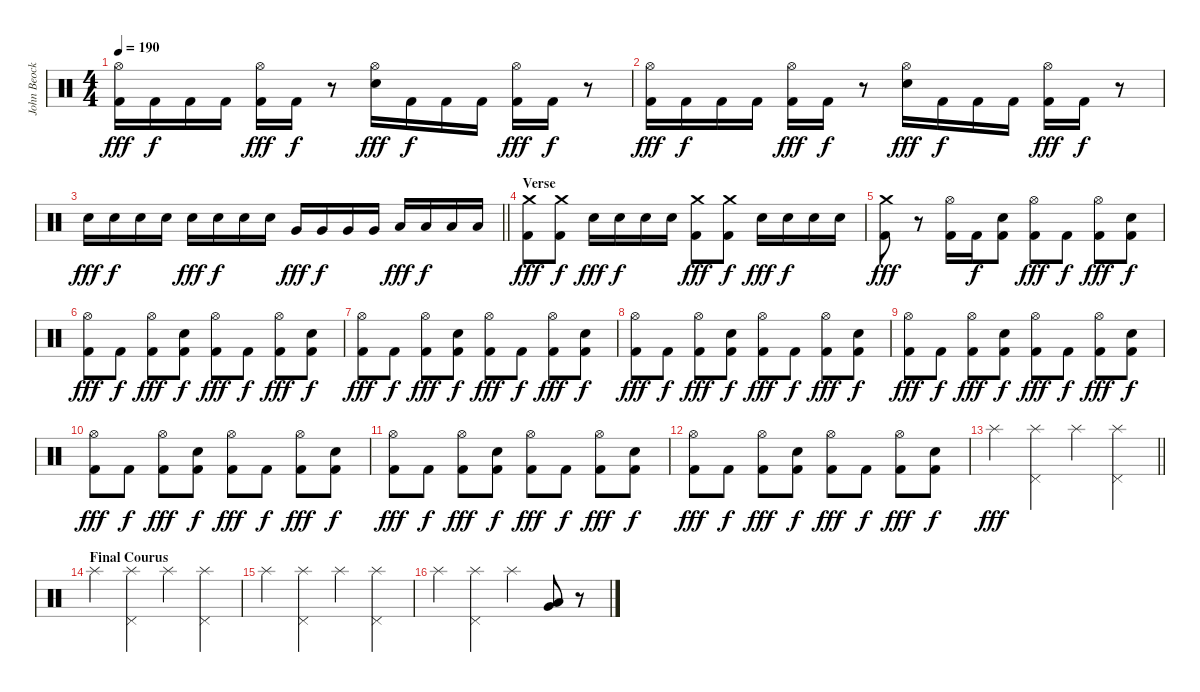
\track ("John Beocklin (Drums)" "John Beock") {instrument percussion}
\staff {score}
\articulation defaults
\ts (4 4)
\tempo 190
\clef neutral
\ks c
("Hi-Hat (open)" "Kick (hit) 2").16{dy fff} "Kick (hit) 2".16{dy f} "Kick (hit) 2".16 "Kick (hit) 2".16 ("Hi-Hat (open)" "Kick (hit) 2").16{dy fff} "Kick (hit) 2".16{dy f} r.8 ("Hi-Hat (open)" "Snare (hit) 2").16{dy fff} "Kick (hit) 2".16{dy f} "Kick (hit) 2".16 "Kick (hit) 2".16 ("Hi-Hat (open)" "Kick (hit) 2").16{dy fff} "Kick (hit) 2".16{dy f} r.8 |
("Hi-Hat (open)" "Kick (hit) 2").16{dy fff} "Kick (hit) 2".16{dy f} "Kick (hit) 2".16 "Kick (hit) 2".16 ("Hi-Hat (open)" "Kick (hit) 2").16{dy fff} "Kick (hit) 2".16{dy f} r.8 ("Hi-Hat (open)" "Snare (hit) 2").16{dy fff} "Kick (hit) 2".16{dy f} "Kick (hit) 2".16 "Kick (hit) 2".16 ("Hi-Hat (open)" "Kick (hit) 2").16{dy fff} "Kick (hit) 2".16{dy f} r.8 |
\barLineRight lightlight "Snare (hit) 2".16{dy fff} "Snare (hit) 2".16{dy f} "Snare (hit) 2".16 "Snare (hit) 2".16 "Snare (hit) 2".16{dy fff} "Snare (hit) 2".16{dy f} "Snare (hit) 2".16 "Snare (hit) 2".16 "Very Low Tom (hit)".16{dy fff} "Very Low Tom (hit)".16{dy f} "Very Low Tom (hit)".16 "Very Low Tom (hit)".16 "Low Floor Tom (hit)".16{dy fff} "Low Floor Tom (hit)".16{dy f} "Low Floor Tom (hit)".16 "Low Floor Tom (hit)".16
|
\section ("" "Verse")
("Crash medium (hit)" "Kick (hit) 2").8{dy fff} ("Crash medium (hit)" "Kick (hit) 2").8{dy f} "Snare (hit) 2".16{dy fff} "Snare (hit) 2".16{dy f} "Snare (hit) 2".16 "Snare (hit) 2".16 ("Crash medium (hit)" "Kick (hit) 2").8{dy fff} ("Crash medium (hit)" "Kick (hit) 2").8{dy f} "Snare (hit) 2".16{dy fff} "Snare (hit) 2".16{dy f} "Snare (hit) 2".16 "Snare (hit) 2".16 |
("Crash medium (hit)" "Kick (hit) 2").8{dy fff} r.8 ("Hi-Hat (open)" "Kick (hit) 2").16 "Kick (hit) 2".16{dy f} ("Snare (hit) 2" "Kick (hit) 2").8 ("Hi-Hat (open)" "Kick (hit) 2").8{dy fff} "Kick (hit) 2".8{dy f} ("Hi-Hat (open)" "Kick (hit) 2").8{dy fff} ("Snare (hit) 2" "Kick (hit) 2").8{dy f} |
("Hi-Hat (open)" "Kick (hit) 2").8{dy fff} "Kick (hit) 2".8{dy f} ("Hi-Hat (open)" "Kick (hit) 2").8{dy fff} ("Snare (hit) 2" "Kick (hit) 2").8{dy f} ("Hi-Hat (open)" "Kick (hit) 2").8{dy fff} "Kick (hit) 2".8{dy f} ("Hi-Hat (open)" "Kick (hit) 2").8{dy fff} ("Snare (hit) 2" "Kick (hit) 2").8{dy f} |
("Hi-Hat (open)" "Kick (hit) 2").8{dy fff} "Kick (hit) 2".8{dy f} ("Hi-Hat (open)" "Kick (hit) 2").8{dy fff} ("Snare (hit) 2" "Kick (hit) 2").8{dy f} ("Hi-Hat (open)" "Kick (hit) 2").8{dy fff} "Kick (hit) 2".8{dy f} ("Hi-Hat (open)" "Kick (hit) 2").8{dy fff} ("Snare (hit) 2" "Kick (hit) 2").8{dy f} |
("Hi-Hat (open)" "Kick (hit) 2").8{dy fff} "Kick (hit) 2".8{dy f} ("Hi-Hat (open)" "Kick (hit) 2").8{dy fff} ("Snare (hit) 2" "Kick (hit) 2").8{dy f} ("Hi-Hat (open)" "Kick (hit) 2").8{dy fff} "Kick (hit) 2".8{dy f} ("Hi-Hat (open)" "Kick (hit) 2").8{dy fff} ("Snare (hit) 2" "Kick (hit) 2").8{dy f} |
("Hi-Hat (open)" "Kick (hit) 2").8{dy fff} "Kick (hit) 2".8{dy f} ("Hi-Hat (open)" "Kick (hit) 2").8{dy fff} ("Snare (hit) 2" "Kick (hit) 2").8{dy f} ("Hi-Hat (open)" "Kick (hit) 2").8{dy fff} "Kick (hit) 2".8{dy f} ("Hi-Hat (open)" "Kick (hit) 2").8{dy fff} ("Snare (hit) 2" "Kick (hit) 2").8{dy f} |
("Hi-Hat (open)" "Kick (hit) 2").8{dy fff} "Kick (hit) 2".8{dy f} ("Hi-Hat (open)" "Kick (hit) 2").8{dy fff} ("Snare (hit) 2" "Kick (hit) 2").8{dy f} ("Hi-Hat (open)" "Kick (hit) 2").8{dy fff} "Kick (hit) 2".8{dy f} ("Hi-Hat (open)" "Kick (hit) 2").8{dy fff} ("Snare (hit) 2" "Kick (hit) 2").8{dy f} |
("Hi-Hat (open)" "Kick (hit) 2").8{dy fff} "Kick (hit) 2".8{dy f} ("Hi-Hat (open)" "Kick (hit) 2").8{dy fff} ("Snare (hit) 2" "Kick (hit) 2").8{dy f} ("Hi-Hat (open)" "Kick (hit) 2").8{dy fff} "Kick (hit) 2".8{dy f} ("Hi-Hat (open)" "Kick (hit) 2").8{dy fff} ("Snare (hit) 2" "Kick (hit) 2").8{dy f} |
("Hi-Hat (open)" "Kick (hit) 2").8{dy fff} "Kick (hit) 2".8{dy f} ("Hi-Hat (open)" "Kick (hit) 2").8{dy fff} ("Snare (hit) 2" "Kick (hit) 2").8{dy f} ("Hi-Hat (open)" "Kick (hit) 2").8{dy fff} "Kick (hit) 2".8{dy f} ("Hi-Hat (open)" "Kick (hit) 2").8{dy fff} ("Snare (hit) 2" "Kick (hit) 2").8{dy f} |
\barLineRight lightlight "Splash (hit)".4{dy fff}
("Splash (hit)" "Pedal Hi-Hat (hit)").4 "Splash (hit)".4 ("Splash (hit)" "Pedal Hi-Hat (hit)").4 |
\section ("" "Final Courus")
"Splash (hit)".4 ("Splash (hit)" "Pedal Hi-Hat (hit)").4 "Splash (hit)".4 ("Splash (hit)" "Pedal Hi-Hat (hit)").4 |
"Splash (hit)".4 ("Splash (hit)" "Pedal Hi-Hat (hit)").4 "Splash (hit)".4 ("Splash (hit)" "Pedal Hi-Hat (hit)").4 |
"Splash (hit)".4 ("Splash (hit)" "Pedal Hi-Hat (hit)").4 "Splash (hit)".4 ("Very Low Tom (hit)" "Low Floor Tom (hit)").8 r.8
